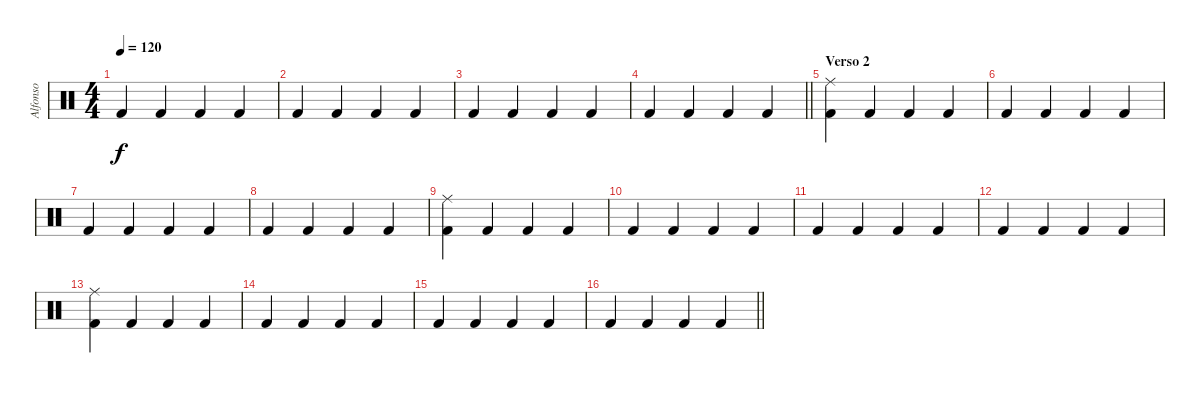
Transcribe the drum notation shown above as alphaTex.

\track ("Alfonso" "Alfonso") {instrument percussion}
\staff {score}
\articulation defaults
\ts (4 4)
\tempo 120
\clef neutral
\ks c "Kick (hit) 2".4{dy f} "Kick (hit) 2".4 "Kick (hit) 2".4 "Kick (hit) 2".4
|
"Kick (hit) 2".4 "Kick (hit) 2".4 "Kick (hit) 2".4 "Kick (hit) 2".4 |
"Kick (hit) 2".4 "Kick (hit) 2".4 "Kick (hit) 2".4 "Kick (hit) 2".4 |
\barLineRight lightlight "Kick (hit) 2".4 "Kick (hit) 2".4 "Kick (hit) 2".4 "Kick (hit) 2".4
|
\section ("" "Verso 2")
("Kick (hit) 2" "Ride (middle)").4 "Kick (hit) 2".4 "Kick (hit) 2".4 "Kick (hit) 2".4 |
"Kick (hit) 2".4 "Kick (hit) 2".4 "Kick (hit) 2".4 "Kick (hit) 2".4 |
"Kick (hit) 2".4 "Kick (hit) 2".4 "Kick (hit) 2".4 "Kick (hit) 2".4 |
"Kick (hit) 2".4 "Kick (hit) 2".4 "Kick (hit) 2".4 "Kick (hit) 2".4 |
("Kick (hit) 2" "Ride (middle)").4 "Kick (hit) 2".4 "Kick (hit) 2".4 "Kick (hit) 2".4 |
"Kick (hit) 2".4 "Kick (hit) 2".4 "Kick (hit) 2".4 "Kick (hit) 2".4 |
"Kick (hit) 2".4 "Kick (hit) 2".4 "Kick (hit) 2".4 "Kick (hit) 2".4 |
"Kick (hit) 2".4 "Kick (hit) 2".4 "Kick (hit) 2".4 "Kick (hit) 2".4 |
("Kick (hit) 2" "Ride (middle)").4 "Kick (hit) 2".4 "Kick (hit) 2".4 "Kick (hit) 2".4 |
"Kick (hit) 2".4 "Kick (hit) 2".4 "Kick (hit) 2".4 "Kick (hit) 2".4 |
"Kick (hit) 2".4 "Kick (hit) 2".4 "Kick (hit) 2".4 "Kick (hit) 2".4 |
\barLineRight lightlight "Kick (hit) 2".4 "Kick (hit) 2".4 "Kick (hit) 2".4 "Kick (hit) 2".4
